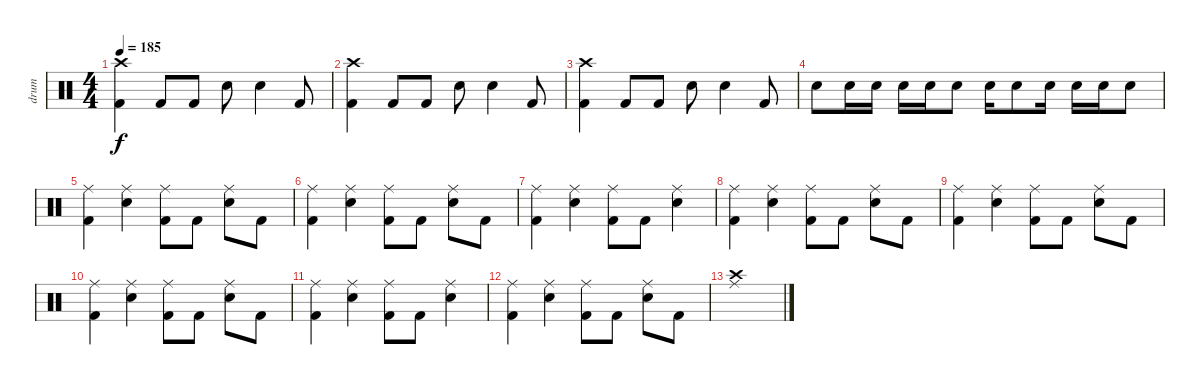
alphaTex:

\track ("drum" "drum") {instrument percussion}
\staff {score}
\articulation defaults
\ts (4 4)
\tempo 185
\clef neutral
\ks c
("Crash high (hit)" "Kick (hit) 2").4{dy f} "Kick (hit) 2".8 "Kick (hit) 2".8 "Snare (hit) 2".8 "Snare (hit) 2".4 "Kick (hit) 2".8 |
("Crash high (hit)" "Kick (hit) 2").4 "Kick (hit) 2".8 "Kick (hit) 2".8 "Snare (hit) 2".8 "Snare (hit) 2".4 "Kick (hit) 2".8 |
("Crash high (hit)" "Kick (hit) 2").4 "Kick (hit) 2".8 "Kick (hit) 2".8 "Snare (hit) 2".8 "Snare (hit) 2".4 "Kick (hit) 2".8 |
"Snare (hit) 2".8 "Snare (hit) 2".16 "Snare (hit) 2".16 "Snare (hit) 2".16 "Snare (hit) 2".16 "Snare (hit) 2".8 "Snare (hit) 2".16 "Snare (hit) 2".8 "Snare (hit) 2".16 "Snare (hit) 2".16 "Snare (hit) 2".16 "Snare (hit) 2".8 |
("Ride (middle)" "Kick (hit) 2").4 ("Ride (middle)" "Snare (hit) 2").4 ("Ride (middle)" "Kick (hit) 2").8 "Kick (hit) 2".8 ("Ride (middle)" "Snare (hit) 2").8 "Kick (hit) 2".8 |
("Ride (middle)" "Kick (hit) 2").4 ("Ride (middle)" "Snare (hit) 2").4 ("Ride (middle)" "Kick (hit) 2").8 "Kick (hit) 2".8 ("Ride (middle)" "Snare (hit) 2").8 "Kick (hit) 2".8 |
("Ride (middle)" "Kick (hit) 2").4 ("Ride (middle)" "Snare (hit) 2").4 ("Ride (middle)" "Kick (hit) 2").8 "Kick (hit) 2".8 ("Ride (middle)" "Snare (hit) 2").4 |
("Ride (middle)" "Kick (hit) 2").4 ("Ride (middle)" "Snare (hit) 2").4 ("Ride (middle)" "Kick (hit) 2").8 "Kick (hit) 2".8 ("Ride (middle)" "Snare (hit) 2").8 "Kick (hit) 2".8 |
("Ride (middle)" "Kick (hit) 2").4 ("Ride (middle)" "Snare (hit) 2").4 ("Ride (middle)" "Kick (hit) 2").8 "Kick (hit) 2".8 ("Ride (middle)" "Snare (hit) 2").8 "Kick (hit) 2".8 |
("Ride (middle)" "Kick (hit) 2").4 ("Ride (middle)" "Snare (hit) 2").4 ("Ride (middle)" "Kick (hit) 2").8 "Kick (hit) 2".8 ("Ride (middle)" "Snare (hit) 2").8 "Kick (hit) 2".8 |
("Ride (middle)" "Kick (hit) 2").4 ("Ride (middle)" "Snare (hit) 2").4 ("Ride (middle)" "Kick (hit) 2").8 "Kick (hit) 2".8 ("Ride (middle)" "Snare (hit) 2").4 |
("Ride (middle)" "Kick (hit) 2").4 ("Ride (middle)" "Snare (hit) 2").4 ("Ride (middle)" "Kick (hit) 2").8 "Kick (hit) 2".8 ("Ride (middle)" "Snare (hit) 2").8 "Kick (hit) 2".8 |
("Ride (middle)" "Crash high (hit)").1
